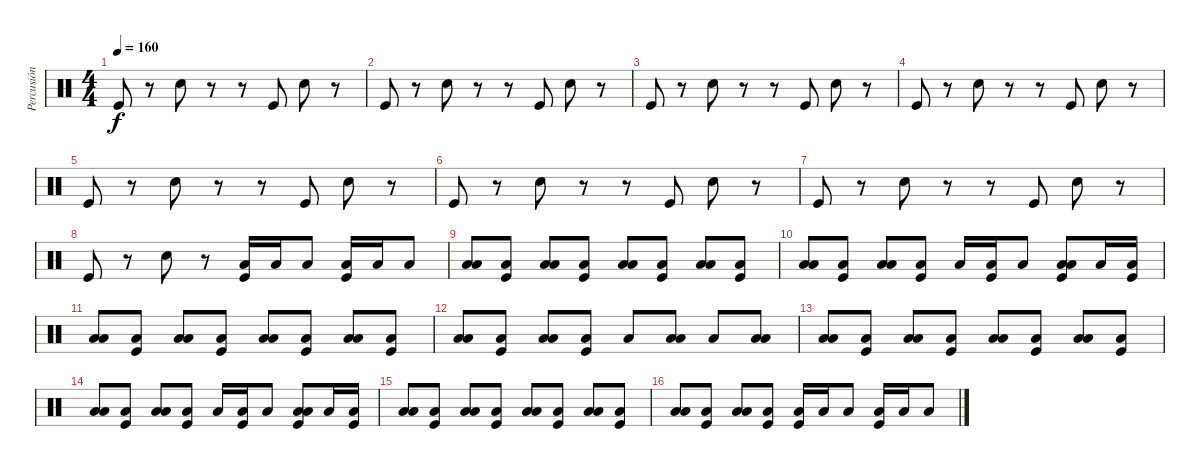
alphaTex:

\track ("Percusión" "Percusión") {instrument percussion}
\staff {score}
\articulation defaults
\ts (4 4)
\tempo 160
\clef neutral
\ks c "Kick (hit)".8{dy f}
r.8 "Electric Snare (hit)".8 r.8 r.8 "Kick (hit)".8 "Electric Snare (hit)".8 r.8 |
"Kick (hit)".8 r.8 "Electric Snare (hit)".8 r.8 r.8 "Kick (hit)".8 "Electric Snare (hit)".8 r.8 |
"Kick (hit)".8 r.8 "Electric Snare (hit)".8 r.8 r.8 "Kick (hit)".8 "Electric Snare (hit)".8 r.8 |
"Kick (hit)".8 r.8 "Electric Snare (hit)".8 r.8 r.8 "Kick (hit)".8 "Electric Snare (hit)".8 r.8 |
"Kick (hit)".8 r.8 "Electric Snare (hit)".8 r.8 r.8 "Kick (hit)".8 "Electric Snare (hit)".8 r.8 |
"Kick (hit)".8 r.8 "Electric Snare (hit)".8 r.8 r.8 "Kick (hit)".8 "Electric Snare (hit)".8 r.8 |
"Kick (hit)".8 r.8 "Electric Snare (hit)".8 r.8 r.8 "Kick (hit)".8 "Electric Snare (hit)".8 r.8 |
"Kick (hit)".8 r.8 "Electric Snare (hit)".8 r.8 ("Low Tom (hit)" "Kick (hit)").16 "Low Tom (hit)".16 "Low Tom (hit)".8 ("Low Tom (hit)" "Kick (hit)").16 "Low Tom (hit)".16 "Low Tom (hit)".8 |
("Low Tom (hit)" "Low Floor Tom (hit)").8 ("Low Floor Tom (hit)" "Kick (hit)").8 ("Low Tom (hit)" "Low Floor Tom (hit)").8 ("Low Floor Tom (hit)" "Kick (hit)").8 ("Low Tom (hit)" "Low Floor Tom (hit)").8 ("Low Floor Tom (hit)" "Kick (hit)").8 ("Low Tom (hit)" "Low Floor Tom (hit)").8 ("Low Floor Tom (hit)" "Kick (hit)").8 |
("Low Tom (hit)" "Low Floor Tom (hit)").8 ("Low Floor Tom (hit)" "Kick (hit)").8 ("Low Tom (hit)" "Low Floor Tom (hit)").8 ("Low Floor Tom (hit)" "Kick (hit)").8 "Low Floor Tom (hit)".16 ("Low Tom (hit)" "Kick (hit)").16 "Low Floor Tom (hit)".8 ("Low Tom (hit)" "Low Floor Tom (hit)" "Kick (hit)").8 "Low Floor Tom (hit)".16 ("Low Tom (hit)" "Kick (hit)").16 |
("Low Tom (hit)" "Low Floor Tom (hit)").8 ("Low Floor Tom (hit)" "Kick (hit)").8 ("Low Tom (hit)" "Low Floor Tom (hit)").8 ("Low Floor Tom (hit)" "Kick (hit)").8 ("Low Tom (hit)" "Low Floor Tom (hit)").8 ("Low Floor Tom (hit)" "Kick (hit)").8 ("Low Tom (hit)" "Low Floor Tom (hit)").8 ("Low Floor Tom (hit)" "Kick (hit)").8 |
("Low Tom (hit)" "Low Floor Tom (hit)").8 ("Low Floor Tom (hit)" "Kick (hit)").8 ("Low Tom (hit)" "Low Floor Tom (hit)").8 ("Low Floor Tom (hit)" "Kick (hit)").8 "Low Floor Tom (hit)".8 ("Low Tom (hit)" "Low Floor Tom (hit)").8 "Low Floor Tom (hit)".8 ("Low Tom (hit)" "Low Floor Tom (hit)").8 |
("Low Tom (hit)" "Low Floor Tom (hit)").8 ("Low Floor Tom (hit)" "Kick (hit)").8 ("Low Tom (hit)" "Low Floor Tom (hit)").8 ("Low Floor Tom (hit)" "Kick (hit)").8 ("Low Tom (hit)" "Low Floor Tom (hit)").8 ("Low Floor Tom (hit)" "Kick (hit)").8 ("Low Tom (hit)" "Low Floor Tom (hit)").8 ("Low Floor Tom (hit)" "Kick (hit)").8 |
("Low Tom (hit)" "Low Floor Tom (hit)").8 ("Low Floor Tom (hit)" "Kick (hit)").8 ("Low Tom (hit)" "Low Floor Tom (hit)").8 ("Low Floor Tom (hit)" "Kick (hit)").8 "Low Floor Tom (hit)".16 ("Low Tom (hit)" "Kick (hit)").16 "Low Floor Tom (hit)".8 ("Low Tom (hit)" "Low Floor Tom (hit)" "Kick (hit)").8 "Low Floor Tom (hit)".16 ("Low Tom (hit)" "Kick (hit)").16 |
("Low Tom (hit)" "Low Floor Tom (hit)").8 ("Low Floor Tom (hit)" "Kick (hit)").8 ("Low Tom (hit)" "Low Floor Tom (hit)").8 ("Low Floor Tom (hit)" "Kick (hit)").8 ("Low Tom (hit)" "Low Floor Tom (hit)").8 ("Low Floor Tom (hit)" "Kick (hit)").8 ("Low Tom (hit)" "Low Floor Tom (hit)").8 ("Low Floor Tom (hit)" "Kick (hit)").8 |
("Low Tom (hit)" "Low Floor Tom (hit)").8 ("Low Floor Tom (hit)" "Kick (hit)").8 ("Low Tom (hit)" "Low Floor Tom (hit)").8 ("Low Floor Tom (hit)" "Kick (hit)").8 ("Low Tom (hit)" "Kick (hit)").16 "Low Tom (hit)".16 "Low Tom (hit)".8 ("Low Tom (hit)" "Kick (hit)").16 "Low Tom (hit)".16 "Low Tom (hit)".8
